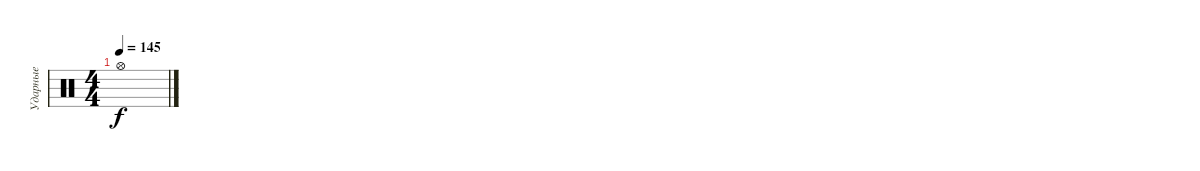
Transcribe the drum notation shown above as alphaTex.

\track ("Ударные" "Ударные") {instrument percussion}
\staff {score}
\articulation defaults
\ts (4 4)
\tempo 145
\clef neutral
\ks c "Hi-Hat (open)".1{dy f}
